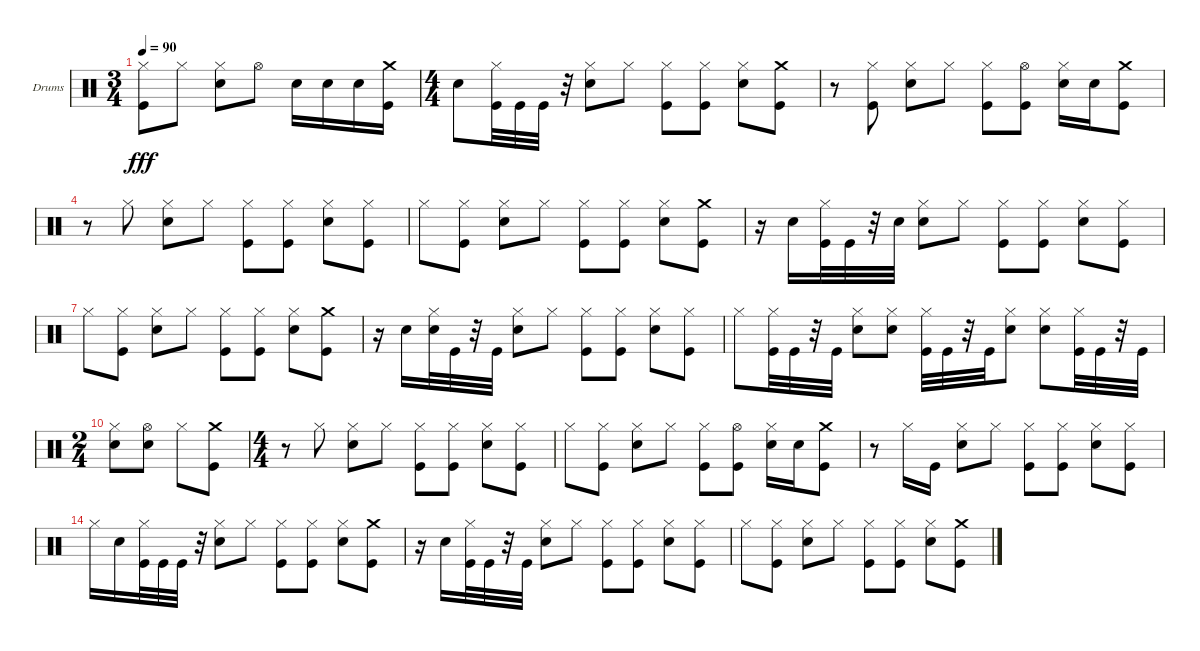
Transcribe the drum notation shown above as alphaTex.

\bracketExtendMode nobrackets
\firstSystemTrackNameOrientation horizontal
\otherSystemsTrackNameOrientation horizontal
\defaultBarNumberDisplay FirstOfSystem
\track ("Drums" "Drums") {instrument percussion}
\staff {score}
\articulation defaults
\ts (3 4)
\tempo 90
\clef neutral
\ks c
("Kick (hit)" "Hi-Hat (closed)").8{dy fff} "Hi-Hat (closed)".8 ("Snare (hit) 2" "Hi-Hat (closed)").8 "Hi-Hat (open)".8 "Snare (hit) 2".16 "Snare (hit) 2".16 "Snare (hit) 2".16 ("Crash medium (hit)" "Kick (hit)").16 |
\ts (4 4)
"Snare (hit) 2".8 ("Kick (hit)" "Hi-Hat (closed)").32 "Kick (hit)".32 "Kick (hit)".32 r.32 ("Hi-Hat (closed)" "Snare (hit) 2").8 "Hi-Hat (closed)".8 ("Kick (hit)" "Hi-Hat (closed)").8 ("Kick (hit)" "Hi-Hat (closed)").8 ("Hi-Hat (closed)" "Snare (hit) 2").8 ("Crash medium (hit)" "Kick (hit)").8 |
r.8 ("Hi-Hat (closed)" "Kick (hit)").8 ("Snare (hit) 2" "Hi-Hat (closed)").8 "Hi-Hat (closed)".8 ("Kick (hit)" "Hi-Hat (closed)").8 ("Kick (hit)" "Hi-Hat (open)").8 ("Hi-Hat (closed)" "Snare (hit) 2").16 "Snare (hit) 2".16 ("Kick (hit)" "Crash medium (hit)").8 |
r.8 "Hi-Hat (closed)".8 ("Snare (hit) 2" "Hi-Hat (closed)").8 "Hi-Hat (closed)".8 ("Kick (hit)" "Hi-Hat (closed)").8 ("Kick (hit)" "Hi-Hat (closed)").8 ("Hi-Hat (closed)" "Snare (hit) 2").8 ("Hi-Hat (closed)" "Kick (hit)").8 |
"Hi-Hat (closed)".8 ("Kick (hit)" "Hi-Hat (closed)").8 ("Snare (hit) 2" "Hi-Hat (closed)").8 "Hi-Hat (closed)".8 ("Kick (hit)" "Hi-Hat (closed)").8 ("Kick (hit)" "Hi-Hat (closed)").8 ("Hi-Hat (closed)" "Snare (hit) 2").8 ("Kick (hit)" "Crash medium (hit)").8 |
r.16 "Snare (hit) 2".16 ("Kick (hit)" "Hi-Hat (closed)").32 "Kick (hit)".32 r.32 "Snare (hit) 2".32 ("Snare (hit) 2" "Hi-Hat (closed)").8 "Hi-Hat (closed)".8 ("Kick (hit)" "Hi-Hat (closed)").8 ("Kick (hit)" "Hi-Hat (closed)").8 ("Hi-Hat (closed)" "Snare (hit) 2").8 ("Kick (hit)" "Hi-Hat (closed)").8 |
"Hi-Hat (closed)".8 ("Kick (hit)" "Hi-Hat (closed)").8 ("Snare (hit) 2" "Hi-Hat (closed)").8 "Hi-Hat (closed)".8 ("Kick (hit)" "Hi-Hat (closed)").8 ("Kick (hit)" "Hi-Hat (closed)").8 ("Hi-Hat (closed)" "Snare (hit) 2").8 ("Crash medium (hit)" "Kick (hit)").8 |
r.16 "Snare (hit) 2".16 ("Snare (hit) 2" "Hi-Hat (closed)").32 "Kick (hit)".32 r.32 "Kick (hit)".32 ("Hi-Hat (closed)" "Snare (hit) 2").8 "Hi-Hat (closed)".8 ("Kick (hit)" "Hi-Hat (closed)").8 ("Hi-Hat (closed)" "Kick (hit)").8 ("Snare (hit) 2" "Hi-Hat (closed)").8 ("Hi-Hat (closed)" "Kick (hit)").8 |
"Hi-Hat (closed)".8 ("Kick (hit)" "Hi-Hat (closed)").32 "Kick (hit)".32 r.32 "Kick (hit)".32 ("Snare (hit) 2" "Hi-Hat (closed)").8 ("Snare (hit) 2" "Hi-Hat (closed)").8 ("Hi-Hat (closed)" "Kick (hit)").32 "Kick (hit)".32 r.32 "Kick (hit)".32 ("Snare (hit) 2" "Hi-Hat (closed)").8 ("Snare (hit) 2" "Hi-Hat (closed)").8 ("Hi-Hat (closed)" "Kick (hit)").32 "Kick (hit)".32 r.32 "Kick (hit)".32 |
\ts (2 4)
("Snare (hit) 2" "Hi-Hat (closed)").8 ("Hi-Hat (open)" "Snare (hit) 2").8 "Hi-Hat (closed)".8 ("Crash medium (hit)" "Kick (hit)").8 |
\ts (4 4)
r.8 "Hi-Hat (closed)".8 ("Hi-Hat (closed)" "Snare (hit) 2").8 "Hi-Hat (closed)".8 ("Kick (hit)" "Hi-Hat (closed)").8 ("Kick (hit)" "Hi-Hat (closed)").8 ("Hi-Hat (closed)" "Snare (hit) 2").8 ("Hi-Hat (closed)" "Kick (hit)").8 |
"Hi-Hat (closed)".8 ("Hi-Hat (closed)" "Kick (hit)").8 ("Snare (hit) 2" "Hi-Hat (closed)").8 "Hi-Hat (closed)".8 ("Kick (hit)" "Hi-Hat (closed)").8 ("Kick (hit)" "Hi-Hat (open)").8 ("Hi-Hat (closed)" "Snare (hit) 2").16 "Snare (hit) 2".16 ("Kick (hit)" "Crash medium (hit)").8 |
r.8 "Hi-Hat (closed)".16 "Kick (hit)".16 ("Snare (hit) 2" "Hi-Hat (closed)").8 "Hi-Hat (closed)".8 ("Kick (hit)" "Hi-Hat (closed)").8 ("Kick (hit)" "Hi-Hat (closed)").8 ("Hi-Hat (closed)" "Snare (hit) 2").8 ("Hi-Hat (closed)" "Kick (hit)").8 |
"Hi-Hat (closed)".16 "Snare (hit) 2".16 ("Kick (hit)" "Hi-Hat (closed)").32 "Kick (hit)".32 "Kick (hit)".32 r.32 ("Snare (hit) 2" "Hi-Hat (closed)").8 "Hi-Hat (closed)".8 ("Kick (hit)" "Hi-Hat (closed)").8 ("Kick (hit)" "Hi-Hat (closed)").8 ("Hi-Hat (closed)" "Snare (hit) 2").8 ("Kick (hit)" "Crash medium (hit)").8 |
r.16 "Snare (hit) 2".16 ("Kick (hit)" "Hi-Hat (closed)").32 "Kick (hit)".32 r.32 "Kick (hit)".32 ("Snare (hit) 2" "Hi-Hat (closed)").8 "Hi-Hat (closed)".8 ("Kick (hit)" "Hi-Hat (closed)").8 ("Kick (hit)" "Hi-Hat (closed)").8 ("Hi-Hat (closed)" "Snare (hit) 2").8 ("Kick (hit)" "Hi-Hat (closed)").8 |
"Hi-Hat (closed)".8 ("Kick (hit)" "Hi-Hat (closed)").8 ("Snare (hit) 2" "Hi-Hat (closed)").8 "Hi-Hat (closed)".8 ("Kick (hit)" "Hi-Hat (closed)").8 ("Kick (hit)" "Hi-Hat (closed)").8 ("Hi-Hat (closed)" "Snare (hit) 2").8 ("Crash medium (hit)" "Kick (hit)").8
